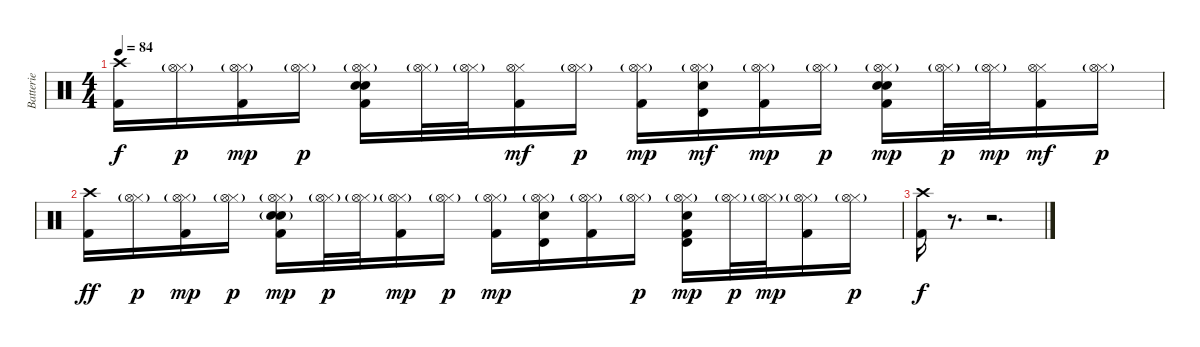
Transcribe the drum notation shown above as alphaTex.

\track ("Batterie" "Batterie") {instrument percussion}
\staff {score}
\articulation defaults
\ts (4 4)
\tempo 84
\clef neutral
\ks c
("Crash high (hit)" "Kick (hit) 2").16{dy f} ("Hi-Hat (closed)" "Hi-Hat (open)"{g}).16{dy p} ("Hi-Hat (closed)" "Hi-Hat (open)"{g} "Kick (hit) 2").16{dy mp} ("Hi-Hat (closed)" "Hi-Hat (open)"{g}).16{dy p} ("Hi-Hat (closed)" "Hi-Hat (open)"{g} "Electric Snare (hit)" "Snare (hit) 2" "Kick (hit) 2").16 ("Hi-Hat (closed)" "Hi-Hat (open)"{g}).32 ("Hi-Hat (closed)" "Hi-Hat (open)"{g}).32 ("Hi-Hat (closed)" "Hi-Hat (open)" "Kick (hit) 2").16{dy mf} ("Hi-Hat (closed)" "Hi-Hat (open)"{g}).16{dy p} ("Hi-Hat (closed)" "Hi-Hat (open)"{g} "Kick (hit) 2").16{dy mp} ("Hi-Hat (closed)" "Hi-Hat (open)"{g} "Electric Snare (hit)" "Timbale high (hit)").16{dy mf} ("Hi-Hat (closed)" "Hi-Hat (open)"{g} "Kick (hit) 2").16{dy mp} ("Hi-Hat (closed)" "Hi-Hat (open)"{g}).16{dy p} ("Hi-Hat (closed)" "Hi-Hat (open)"{g} "Electric Snare (hit)" "Snare (hit) 2" "Kick (hit) 2").16{dy mp} ("Hi-Hat (closed)" "Hi-Hat (open)"{g}).32{dy p} ("Hi-Hat (closed)" "Hi-Hat (open)"{g}).32{dy mp} ("Hi-Hat (closed)" "Hi-Hat (open)" "Kick (hit) 2").16{dy mf} ("Hi-Hat (closed)" "Hi-Hat (open)"{g}).16{dy p} |
("Crash high (hit)" "Kick (hit) 2").16{dy ff} ("Hi-Hat (closed)" "Hi-Hat (open)"{g}).16{dy p} ("Hi-Hat (closed)" "Hi-Hat (open)"{g} "Kick (hit) 2").16{dy mp} ("Hi-Hat (closed)" "Hi-Hat (open)"{g}).16{dy p} ("Hi-Hat (closed)" "Hi-Hat (open)"{g} "Electric Snare (hit)" "Snare (hit) 2"{g} "Kick (hit) 2").16{dy mp} ("Hi-Hat (closed)" "Hi-Hat (open)"{g}).32{dy p} ("Hi-Hat (closed)" "Hi-Hat (open)"{g}).32 ("Hi-Hat (closed)" "Hi-Hat (open)"{g} "Kick (hit) 2").16{dy mp} ("Hi-Hat (closed)" "Hi-Hat (open)"{g}).16{dy p} ("Hi-Hat (closed)" "Hi-Hat (open)"{g} "Kick (hit) 2").16{dy mp} ("Hi-Hat (closed)" "Hi-Hat (open)"{g} "Electric Snare (hit)" "Timbale high (hit)").16 ("Hi-Hat (closed)" "Hi-Hat (open)"{g} "Kick (hit) 2").16 ("Hi-Hat (closed)" "Hi-Hat (open)"{g}).16{dy p} ("Hi-Hat (closed)" "Hi-Hat (open)"{g} "Electric Snare (hit)" "Timbale high (hit)" "Kick (hit) 2").16{dy mp} ("Hi-Hat (closed)" "Hi-Hat (open)"{g}).32{dy p} ("Hi-Hat (closed)" "Hi-Hat (open)"{g}).32{dy mp} ("Hi-Hat (closed)" "Hi-Hat (open)"{g} "Kick (hit) 2").16 ("Hi-Hat (closed)" "Hi-Hat (open)"{g}).16{dy p} |
("Crash high (hit)" "Kick (hit) 2").16{dy f} r.8{d} r.2{d}
